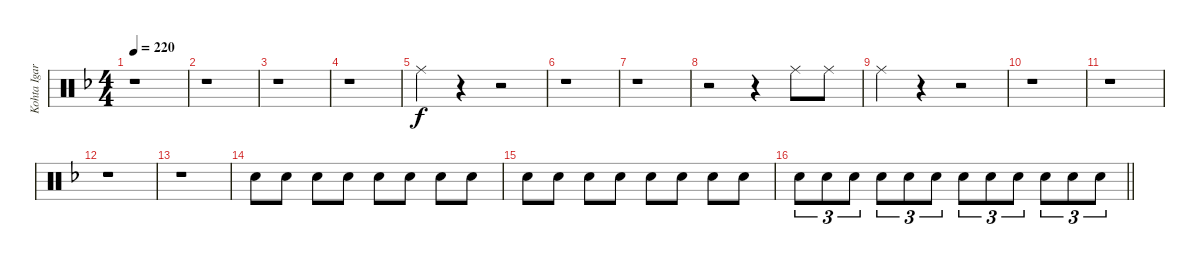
\track ("Kohta Igarashi" "Kohta Igar") {instrument percussion}
\staff {score}
\articulation defaults
\ts (4 4)
\tempo 220
\clef neutral
\ks f
r.1{dy f} |
r.1 |
r.1 |
r.1 |
"Ride (middle)".4 r.4 r.2 |
r.1 |
r.1 |
r.2 r.4 "Ride (middle)".8 "Ride (middle)".8 |
"Ride (middle)".4 r.4 r.2 |
r.1 |
r.1 |
r.1 |
r.1 |
"Electric Snare (hit)".8 "Electric Snare (hit)".8 "Electric Snare (hit)".8 "Electric Snare (hit)".8 "Electric Snare (hit)".8 "Electric Snare (hit)".8 "Electric Snare (hit)".8 "Electric Snare (hit)".8 |
"Electric Snare (hit)".8 "Electric Snare (hit)".8 "Electric Snare (hit)".8 "Electric Snare (hit)".8 "Electric Snare (hit)".8 "Electric Snare (hit)".8 "Electric Snare (hit)".8 "Electric Snare (hit)".8 |
\barLineRight lightlight "Electric Snare (hit)".8{tu (3 2)} "Electric Snare (hit)".8{tu (3 2)} "Electric Snare (hit)".8{tu (3 2)} "Electric Snare (hit)".8{tu (3 2)} "Electric Snare (hit)".8{tu (3 2)} "Electric Snare (hit)".8{tu (3 2)} "Electric Snare (hit)".8{tu (3 2)} "Electric Snare (hit)".8{tu (3 2)} "Electric Snare (hit)".8{tu (3 2)} "Electric Snare (hit)".8{tu (3 2)} "Electric Snare (hit)".8{tu (3 2)} "Electric Snare (hit)".8{tu (3 2)}
